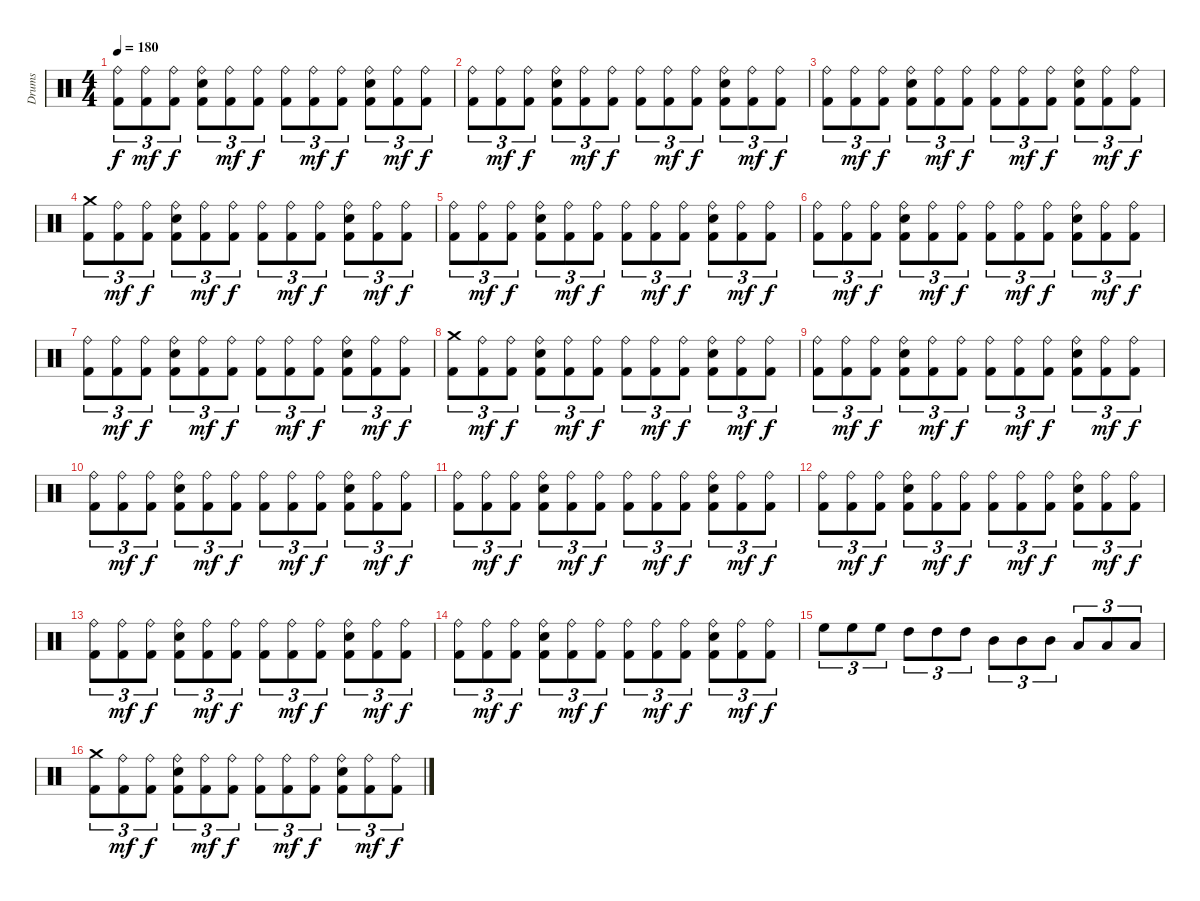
\track ("Drums" "Drums") {instrument percussion}
\staff {score}
\articulation defaults
\ts (4 4)
\tempo 180
\clef neutral
\ks c
("Ride (bell)" "Kick (hit) 2").8{tu (3 2) dy f} ("Ride (bell)" "Kick (hit) 2").8{tu (3 2) dy mf} ("Ride (bell)" "Kick (hit) 2").8{tu (3 2) dy f} ("Ride (bell)" "Electric Snare (hit)" "Kick (hit) 2").8{tu (3 2)} ("Ride (bell)" "Kick (hit) 2").8{tu (3 2) dy mf} ("Ride (bell)" "Kick (hit) 2").8{tu (3 2) dy f} ("Ride (bell)" "Kick (hit) 2").8{tu (3 2)} ("Ride (bell)" "Kick (hit) 2").8{tu (3 2) dy mf} ("Ride (bell)" "Kick (hit) 2").8{tu (3 2) dy f} ("Ride (bell)" "Electric Snare (hit)" "Kick (hit) 2").8{tu (3 2)} ("Ride (bell)" "Kick (hit) 2").8{tu (3 2) dy mf} ("Ride (bell)" "Kick (hit) 2").8{tu (3 2) dy f} |
("Ride (bell)" "Kick (hit) 2").8{tu (3 2)} ("Ride (bell)" "Kick (hit) 2").8{tu (3 2) dy mf} ("Ride (bell)" "Kick (hit) 2").8{tu (3 2) dy f} ("Ride (bell)" "Electric Snare (hit)" "Kick (hit) 2").8{tu (3 2)} ("Ride (bell)" "Kick (hit) 2").8{tu (3 2) dy mf} ("Ride (bell)" "Kick (hit) 2").8{tu (3 2) dy f} ("Ride (bell)" "Kick (hit) 2").8{tu (3 2)} ("Ride (bell)" "Kick (hit) 2").8{tu (3 2) dy mf} ("Ride (bell)" "Kick (hit) 2").8{tu (3 2) dy f} ("Ride (bell)" "Electric Snare (hit)" "Kick (hit) 2").8{tu (3 2)} ("Ride (bell)" "Kick (hit) 2").8{tu (3 2) dy mf} ("Ride (bell)" "Kick (hit) 2").8{tu (3 2) dy f} |
("Ride (bell)" "Kick (hit) 2").8{tu (3 2)} ("Ride (bell)" "Kick (hit) 2").8{tu (3 2) dy mf} ("Ride (bell)" "Kick (hit) 2").8{tu (3 2) dy f} ("Ride (bell)" "Electric Snare (hit)" "Kick (hit) 2").8{tu (3 2)} ("Ride (bell)" "Kick (hit) 2").8{tu (3 2) dy mf} ("Ride (bell)" "Kick (hit) 2").8{tu (3 2) dy f} ("Ride (bell)" "Kick (hit) 2").8{tu (3 2)} ("Ride (bell)" "Kick (hit) 2").8{tu (3 2) dy mf} ("Ride (bell)" "Kick (hit) 2").8{tu (3 2) dy f} ("Ride (bell)" "Electric Snare (hit)" "Kick (hit) 2").8{tu (3 2)} ("Ride (bell)" "Kick (hit) 2").8{tu (3 2) dy mf} ("Ride (bell)" "Kick (hit) 2").8{tu (3 2) dy f} |
("Crash medium (hit)" "Kick (hit) 2").8{tu (3 2)} ("Ride (bell)" "Kick (hit) 2").8{tu (3 2) dy mf} ("Ride (bell)" "Kick (hit) 2").8{tu (3 2) dy f} ("Ride (bell)" "Electric Snare (hit)" "Kick (hit) 2").8{tu (3 2)} ("Ride (bell)" "Kick (hit) 2").8{tu (3 2) dy mf} ("Ride (bell)" "Kick (hit) 2").8{tu (3 2) dy f} ("Ride (bell)" "Kick (hit) 2").8{tu (3 2)} ("Ride (bell)" "Kick (hit) 2").8{tu (3 2) dy mf} ("Ride (bell)" "Kick (hit) 2").8{tu (3 2) dy f} ("Ride (bell)" "Electric Snare (hit)" "Kick (hit) 2").8{tu (3 2)} ("Ride (bell)" "Kick (hit) 2").8{tu (3 2) dy mf} ("Ride (bell)" "Kick (hit) 2").8{tu (3 2) dy f} |
("Ride (bell)" "Kick (hit) 2").8{tu (3 2)} ("Ride (bell)" "Kick (hit) 2").8{tu (3 2) dy mf} ("Ride (bell)" "Kick (hit) 2").8{tu (3 2) dy f} ("Ride (bell)" "Electric Snare (hit)" "Kick (hit) 2").8{tu (3 2)} ("Ride (bell)" "Kick (hit) 2").8{tu (3 2) dy mf} ("Ride (bell)" "Kick (hit) 2").8{tu (3 2) dy f} ("Ride (bell)" "Kick (hit) 2").8{tu (3 2)} ("Ride (bell)" "Kick (hit) 2").8{tu (3 2) dy mf} ("Ride (bell)" "Kick (hit) 2").8{tu (3 2) dy f} ("Ride (bell)" "Electric Snare (hit)" "Kick (hit) 2").8{tu (3 2)} ("Ride (bell)" "Kick (hit) 2").8{tu (3 2) dy mf} ("Ride (bell)" "Kick (hit) 2").8{tu (3 2) dy f} |
("Ride (bell)" "Kick (hit) 2").8{tu (3 2)} ("Ride (bell)" "Kick (hit) 2").8{tu (3 2) dy mf} ("Ride (bell)" "Kick (hit) 2").8{tu (3 2) dy f} ("Ride (bell)" "Electric Snare (hit)" "Kick (hit) 2").8{tu (3 2)} ("Ride (bell)" "Kick (hit) 2").8{tu (3 2) dy mf} ("Ride (bell)" "Kick (hit) 2").8{tu (3 2) dy f} ("Ride (bell)" "Kick (hit) 2").8{tu (3 2)} ("Ride (bell)" "Kick (hit) 2").8{tu (3 2) dy mf} ("Ride (bell)" "Kick (hit) 2").8{tu (3 2) dy f} ("Ride (bell)" "Electric Snare (hit)" "Kick (hit) 2").8{tu (3 2)} ("Ride (bell)" "Kick (hit) 2").8{tu (3 2) dy mf} ("Ride (bell)" "Kick (hit) 2").8{tu (3 2) dy f} |
("Ride (bell)" "Kick (hit) 2").8{tu (3 2)} ("Ride (bell)" "Kick (hit) 2").8{tu (3 2) dy mf} ("Ride (bell)" "Kick (hit) 2").8{tu (3 2) dy f} ("Ride (bell)" "Electric Snare (hit)" "Kick (hit) 2").8{tu (3 2)} ("Ride (bell)" "Kick (hit) 2").8{tu (3 2) dy mf} ("Ride (bell)" "Kick (hit) 2").8{tu (3 2) dy f} ("Ride (bell)" "Kick (hit) 2").8{tu (3 2)} ("Ride (bell)" "Kick (hit) 2").8{tu (3 2) dy mf} ("Ride (bell)" "Kick (hit) 2").8{tu (3 2) dy f} ("Ride (bell)" "Electric Snare (hit)" "Kick (hit) 2").8{tu (3 2)} ("Ride (bell)" "Kick (hit) 2").8{tu (3 2) dy mf} ("Ride (bell)" "Kick (hit) 2").8{tu (3 2) dy f} |
("Crash medium (hit)" "Kick (hit) 2").8{tu (3 2)} ("Ride (bell)" "Kick (hit) 2").8{tu (3 2) dy mf} ("Ride (bell)" "Kick (hit) 2").8{tu (3 2) dy f} ("Ride (bell)" "Electric Snare (hit)" "Kick (hit) 2").8{tu (3 2)} ("Ride (bell)" "Kick (hit) 2").8{tu (3 2) dy mf} ("Ride (bell)" "Kick (hit) 2").8{tu (3 2) dy f} ("Ride (bell)" "Kick (hit) 2").8{tu (3 2)} ("Ride (bell)" "Kick (hit) 2").8{tu (3 2) dy mf} ("Ride (bell)" "Kick (hit) 2").8{tu (3 2) dy f} ("Ride (bell)" "Electric Snare (hit)" "Kick (hit) 2").8{tu (3 2)} ("Ride (bell)" "Kick (hit) 2").8{tu (3 2) dy mf} ("Ride (bell)" "Kick (hit) 2").8{tu (3 2) dy f} |
("Ride (bell)" "Kick (hit) 2").8{tu (3 2)} ("Ride (bell)" "Kick (hit) 2").8{tu (3 2) dy mf} ("Ride (bell)" "Kick (hit) 2").8{tu (3 2) dy f} ("Ride (bell)" "Electric Snare (hit)" "Kick (hit) 2").8{tu (3 2)} ("Ride (bell)" "Kick (hit) 2").8{tu (3 2) dy mf} ("Ride (bell)" "Kick (hit) 2").8{tu (3 2) dy f} ("Ride (bell)" "Kick (hit) 2").8{tu (3 2)} ("Ride (bell)" "Kick (hit) 2").8{tu (3 2) dy mf} ("Ride (bell)" "Kick (hit) 2").8{tu (3 2) dy f} ("Ride (bell)" "Electric Snare (hit)" "Kick (hit) 2").8{tu (3 2)} ("Ride (bell)" "Kick (hit) 2").8{tu (3 2) dy mf} ("Ride (bell)" "Kick (hit) 2").8{tu (3 2) dy f} |
("Ride (bell)" "Kick (hit) 2").8{tu (3 2)} ("Ride (bell)" "Kick (hit) 2").8{tu (3 2) dy mf} ("Ride (bell)" "Kick (hit) 2").8{tu (3 2) dy f} ("Ride (bell)" "Electric Snare (hit)" "Kick (hit) 2").8{tu (3 2)} ("Ride (bell)" "Kick (hit) 2").8{tu (3 2) dy mf} ("Ride (bell)" "Kick (hit) 2").8{tu (3 2) dy f} ("Ride (bell)" "Kick (hit) 2").8{tu (3 2)} ("Ride (bell)" "Kick (hit) 2").8{tu (3 2) dy mf} ("Ride (bell)" "Kick (hit) 2").8{tu (3 2) dy f} ("Ride (bell)" "Electric Snare (hit)" "Kick (hit) 2").8{tu (3 2)} ("Ride (bell)" "Kick (hit) 2").8{tu (3 2) dy mf} ("Ride (bell)" "Kick (hit) 2").8{tu (3 2) dy f} |
("Ride (bell)" "Kick (hit) 2").8{tu (3 2)} ("Ride (bell)" "Kick (hit) 2").8{tu (3 2) dy mf} ("Ride (bell)" "Kick (hit) 2").8{tu (3 2) dy f} ("Ride (bell)" "Electric Snare (hit)" "Kick (hit) 2").8{tu (3 2)} ("Ride (bell)" "Kick (hit) 2").8{tu (3 2) dy mf} ("Ride (bell)" "Kick (hit) 2").8{tu (3 2) dy f} ("Ride (bell)" "Kick (hit) 2").8{tu (3 2)} ("Ride (bell)" "Kick (hit) 2").8{tu (3 2) dy mf} ("Ride (bell)" "Kick (hit) 2").8{tu (3 2) dy f} ("Ride (bell)" "Electric Snare (hit)" "Kick (hit) 2").8{tu (3 2)} ("Ride (bell)" "Kick (hit) 2").8{tu (3 2) dy mf} ("Ride (bell)" "Kick (hit) 2").8{tu (3 2) dy f} |
("Ride (bell)" "Kick (hit) 2").8{tu (3 2)} ("Ride (bell)" "Kick (hit) 2").8{tu (3 2) dy mf} ("Ride (bell)" "Kick (hit) 2").8{tu (3 2) dy f} ("Ride (bell)" "Electric Snare (hit)" "Kick (hit) 2").8{tu (3 2)} ("Ride (bell)" "Kick (hit) 2").8{tu (3 2) dy mf} ("Ride (bell)" "Kick (hit) 2").8{tu (3 2) dy f} ("Ride (bell)" "Kick (hit) 2").8{tu (3 2)} ("Ride (bell)" "Kick (hit) 2").8{tu (3 2) dy mf} ("Ride (bell)" "Kick (hit) 2").8{tu (3 2) dy f} ("Ride (bell)" "Electric Snare (hit)" "Kick (hit) 2").8{tu (3 2)} ("Ride (bell)" "Kick (hit) 2").8{tu (3 2) dy mf} ("Ride (bell)" "Kick (hit) 2").8{tu (3 2) dy f} |
("Ride (bell)" "Kick (hit) 2").8{tu (3 2)} ("Ride (bell)" "Kick (hit) 2").8{tu (3 2) dy mf} ("Ride (bell)" "Kick (hit) 2").8{tu (3 2) dy f} ("Ride (bell)" "Electric Snare (hit)" "Kick (hit) 2").8{tu (3 2)} ("Ride (bell)" "Kick (hit) 2").8{tu (3 2) dy mf} ("Ride (bell)" "Kick (hit) 2").8{tu (3 2) dy f} ("Ride (bell)" "Kick (hit) 2").8{tu (3 2)} ("Ride (bell)" "Kick (hit) 2").8{tu (3 2) dy mf} ("Ride (bell)" "Kick (hit) 2").8{tu (3 2) dy f} ("Ride (bell)" "Electric Snare (hit)" "Kick (hit) 2").8{tu (3 2)} ("Ride (bell)" "Kick (hit) 2").8{tu (3 2) dy mf} ("Ride (bell)" "Kick (hit) 2").8{tu (3 2) dy f} |
("Ride (bell)" "Kick (hit) 2").8{tu (3 2)} ("Ride (bell)" "Kick (hit) 2").8{tu (3 2) dy mf} ("Ride (bell)" "Kick (hit) 2").8{tu (3 2) dy f} ("Ride (bell)" "Electric Snare (hit)" "Kick (hit) 2").8{tu (3 2)} ("Ride (bell)" "Kick (hit) 2").8{tu (3 2) dy mf} ("Ride (bell)" "Kick (hit) 2").8{tu (3 2) dy f} ("Ride (bell)" "Kick (hit) 2").8{tu (3 2)} ("Ride (bell)" "Kick (hit) 2").8{tu (3 2) dy mf} ("Ride (bell)" "Kick (hit) 2").8{tu (3 2) dy f} ("Ride (bell)" "Electric Snare (hit)" "Kick (hit) 2").8{tu (3 2)} ("Ride (bell)" "Kick (hit) 2").8{tu (3 2) dy mf} ("Ride (bell)" "Kick (hit) 2").8{tu (3 2) dy f} |
"High Floor Tom (hit)".8{tu (3 2)} "High Floor Tom (hit)".8{tu (3 2)} "High Floor Tom (hit)".8{tu (3 2)} "High Tom (hit)".8{tu (3 2)} "High Tom (hit)".8{tu (3 2)} "High Tom (hit)".8{tu (3 2)} "Mid Tom (hit)".8{tu (3 2)} "Mid Tom (hit)".8{tu (3 2)} "Mid Tom (hit)".8{tu (3 2)} "Low Tom (hit)".8{tu (3 2)} "Low Tom (hit)".8{tu (3 2)} "Low Tom (hit)".8{tu (3 2)} |
("Crash medium (hit)" "Kick (hit) 2").8{tu (3 2)} ("Ride (bell)" "Kick (hit) 2").8{tu (3 2) dy mf} ("Ride (bell)" "Kick (hit) 2").8{tu (3 2) dy f} ("Ride (bell)" "Electric Snare (hit)" "Kick (hit) 2").8{tu (3 2)} ("Ride (bell)" "Kick (hit) 2").8{tu (3 2) dy mf} ("Ride (bell)" "Kick (hit) 2").8{tu (3 2) dy f} ("Ride (bell)" "Kick (hit) 2").8{tu (3 2)} ("Ride (bell)" "Kick (hit) 2").8{tu (3 2) dy mf} ("Ride (bell)" "Kick (hit) 2").8{tu (3 2) dy f} ("Ride (bell)" "Electric Snare (hit)" "Kick (hit) 2").8{tu (3 2)} ("Ride (bell)" "Kick (hit) 2").8{tu (3 2) dy mf} ("Ride (bell)" "Kick (hit) 2").8{tu (3 2) dy f}
